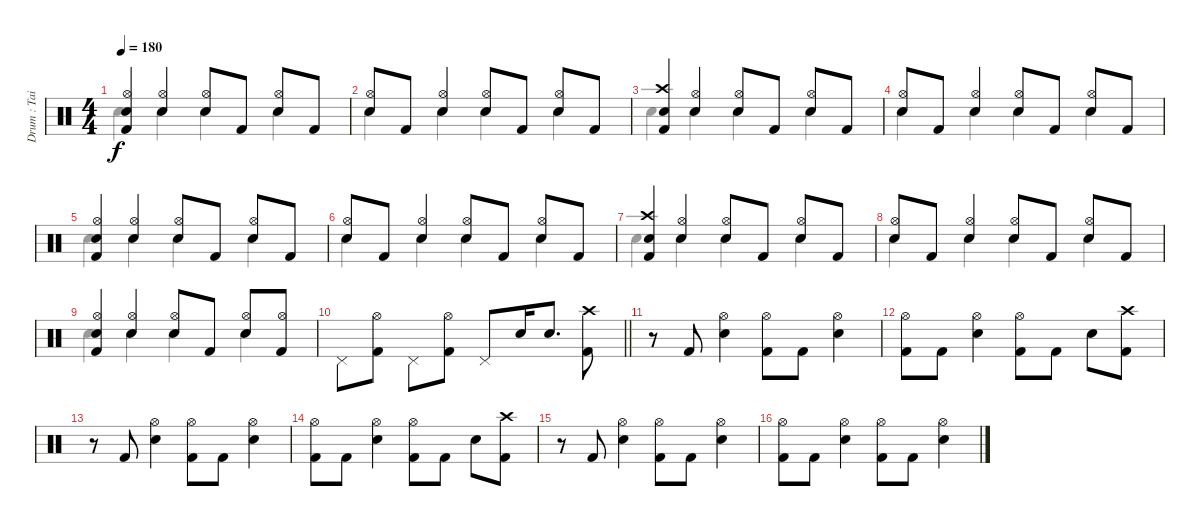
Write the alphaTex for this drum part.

\track ("Drum : Tainaka Ritsu - Chan" "Drum : Tai") {instrument percussion}
\staff {score}
\articulation defaults
\voice
\ts (4 4)
\tempo 180
\clef neutral
\ks c
("Hi-Hat (open)" "Electric Snare (hit)" "Kick (hit) 2").4{dy f} ("Hi-Hat (open)" "Electric Snare (hit)").4 ("Hi-Hat (open)" "Electric Snare (hit)").8 "Kick (hit) 2".8 ("Hi-Hat (open)" "Electric Snare (hit)").8 "Kick (hit) 2".8 |
("Hi-Hat (open)" "Electric Snare (hit)").8 "Kick (hit) 2".8 ("Hi-Hat (open)" "Electric Snare (hit)").4 ("Hi-Hat (open)" "Electric Snare (hit)").8 "Kick (hit) 2".8 ("Hi-Hat (open)" "Electric Snare (hit)").8 "Kick (hit) 2".8 |
("Crash high (hit)" "Electric Snare (hit)" "Kick (hit) 2").4 ("Hi-Hat (open)" "Electric Snare (hit)").4 ("Hi-Hat (open)" "Electric Snare (hit)").8 "Kick (hit) 2".8 ("Hi-Hat (open)" "Electric Snare (hit)").8 "Kick (hit) 2".8 |
("Hi-Hat (open)" "Electric Snare (hit)").8 "Kick (hit) 2".8 ("Hi-Hat (open)" "Electric Snare (hit)").4 ("Hi-Hat (open)" "Electric Snare (hit)").8 "Kick (hit) 2".8 ("Hi-Hat (open)" "Electric Snare (hit)").8 "Kick (hit) 2".8 |
("Hi-Hat (open)" "Electric Snare (hit)" "Kick (hit) 2").4 ("Hi-Hat (open)" "Electric Snare (hit)").4 ("Hi-Hat (open)" "Electric Snare (hit)").8 "Kick (hit) 2".8 ("Hi-Hat (open)" "Electric Snare (hit)").8 "Kick (hit) 2".8 |
("Hi-Hat (open)" "Electric Snare (hit)").8 "Kick (hit) 2".8 ("Hi-Hat (open)" "Electric Snare (hit)").4 ("Hi-Hat (open)" "Electric Snare (hit)").8 "Kick (hit) 2".8 ("Hi-Hat (open)" "Electric Snare (hit)").8 "Kick (hit) 2".8 |
("Crash high (hit)" "Electric Snare (hit)" "Kick (hit) 2").4 ("Hi-Hat (open)" "Electric Snare (hit)").4 ("Hi-Hat (open)" "Electric Snare (hit)").8 "Kick (hit) 2".8 ("Hi-Hat (open)" "Electric Snare (hit)").8 "Kick (hit) 2".8 |
("Hi-Hat (open)" "Electric Snare (hit)").8 "Kick (hit) 2".8 ("Hi-Hat (open)" "Electric Snare (hit)").4 ("Hi-Hat (open)" "Electric Snare (hit)").8 "Kick (hit) 2".8 ("Hi-Hat (open)" "Electric Snare (hit)").8 "Kick (hit) 2".8 |
("Hi-Hat (open)" "Electric Snare (hit)" "Kick (hit) 2").4 ("Hi-Hat (open)" "Electric Snare (hit)").4 ("Hi-Hat (open)" "Electric Snare (hit)").8 "Kick (hit) 2".8 ("Hi-Hat (open)" "Electric Snare (hit)").8 ("Hi-Hat (open)" "Kick (hit) 2").8 |
\barLineRight lightlight "Pedal Hi-Hat (hit)".8
("Hi-Hat (open)" "Kick (hit) 2").8 "Pedal Hi-Hat (hit)".8 ("Hi-Hat (open)" "Kick (hit) 2").8 "Pedal Hi-Hat (hit)".8 "Electric Snare (hit)".16 "Electric Snare (hit)".8{d} ("Crash high (hit)" "Kick (hit) 2").8 |
r.8 "Kick (hit) 2".8 ("Hi-Hat (open)" "Electric Snare (hit)").4 ("Hi-Hat (open)" "Kick (hit) 2").8 "Kick (hit) 2".8 ("Hi-Hat (open)" "Electric Snare (hit)").4 |
("Hi-Hat (open)" "Kick (hit) 2").8 "Kick (hit) 2".8 ("Hi-Hat (open)" "Electric Snare (hit)").4 ("Hi-Hat (open)" "Kick (hit) 2").8 "Kick (hit) 2".8 "Electric Snare (hit)".8 ("Crash high (hit)" "Kick (hit) 2").8 |
r.8 "Kick (hit) 2".8 ("Hi-Hat (open)" "Electric Snare (hit)").4 ("Hi-Hat (open)" "Kick (hit) 2").8 "Kick (hit) 2".8 ("Hi-Hat (open)" "Electric Snare (hit)").4 |
("Hi-Hat (open)" "Kick (hit) 2").8 "Kick (hit) 2".8 ("Hi-Hat (open)" "Electric Snare (hit)").4 ("Hi-Hat (open)" "Kick (hit) 2").8 "Kick (hit) 2".8 "Electric Snare (hit)".8 ("Crash high (hit)" "Kick (hit) 2").8 |
r.8 "Kick (hit) 2".8 ("Hi-Hat (open)" "Electric Snare (hit)").4 ("Hi-Hat (open)" "Kick (hit) 2").8 "Kick (hit) 2".8 ("Hi-Hat (open)" "Electric Snare (hit)").4 |
("Hi-Hat (open)" "Kick (hit) 2").8 "Kick (hit) 2".8 ("Hi-Hat (open)" "Electric Snare (hit)").4 ("Hi-Hat (open)" "Kick (hit) 2").8 "Kick (hit) 2".8 ("Hi-Hat (open)" "Electric Snare (hit)").4
\voice
\clef neutral
\ottava regular
\simile none
\ks c "Hand Clap (hit)".4{dy f} "Hand Clap (hit)".4 "Hand Clap (hit)".4 "Hand Clap (hit)".4
|
"Hand Clap (hit)".4 "Hand Clap (hit)".4 "Hand Clap (hit)".4 "Hand Clap (hit)".4 |
"Hand Clap (hit)".4 "Hand Clap (hit)".4 "Hand Clap (hit)".4 "Hand Clap (hit)".4 |
"Hand Clap (hit)".4 "Hand Clap (hit)".4 "Hand Clap (hit)".4 "Hand Clap (hit)".4 |
"Hand Clap (hit)".4 "Hand Clap (hit)".4 "Hand Clap (hit)".4 "Hand Clap (hit)".4 |
"Hand Clap (hit)".4 "Hand Clap (hit)".4 "Hand Clap (hit)".4 "Hand Clap (hit)".4 |
"Hand Clap (hit)".4 "Hand Clap (hit)".4 "Hand Clap (hit)".4 "Hand Clap (hit)".4 |
"Hand Clap (hit)".4 "Hand Clap (hit)".4 "Hand Clap (hit)".4 "Hand Clap (hit)".4 |
"Hand Clap (hit)".4 "Hand Clap (hit)".4 "Hand Clap (hit)".4 "Hand Clap (hit)".4 |
\barLineRight lightlight
|
|
|
|
|
|
